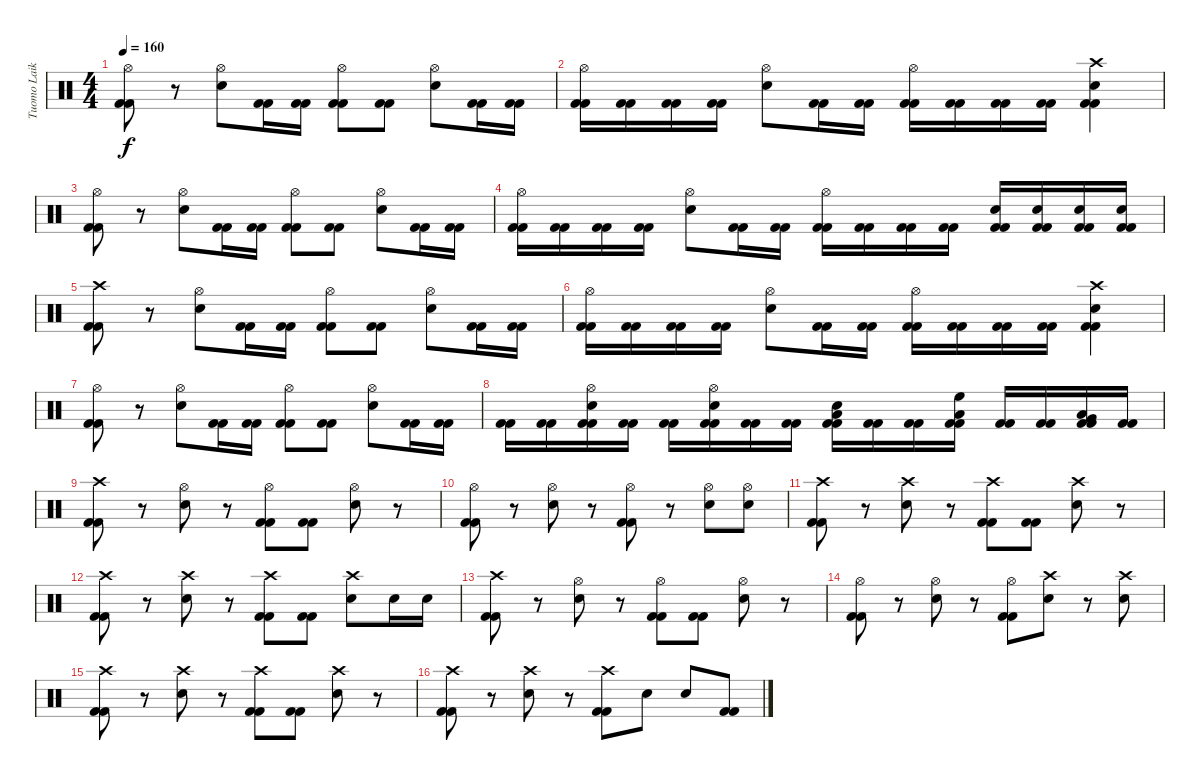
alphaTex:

\track ("Tuomo Laikari" "Tuomo Laik") {instrument percussion}
\staff {score}
\articulation defaults
\ts (4 4)
\tempo 160
\clef neutral
\ks c
("Hi-Hat (open)" "Kick (hit) 2" "Kick (hit) 2").8{dy f} r.8 ("Hi-Hat (open)" "Electric Snare (hit)").8 ("Kick (hit) 2" "Kick (hit) 2").16 ("Kick (hit) 2" "Kick (hit) 2").16 ("Hi-Hat (open)" "Kick (hit) 2" "Kick (hit) 2").8 ("Kick (hit) 2" "Kick (hit) 2").8 ("Hi-Hat (open)" "Electric Snare (hit)").8 ("Kick (hit) 2" "Kick (hit) 2").16 ("Kick (hit) 2" "Kick (hit) 2").16 |
("Hi-Hat (open)" "Kick (hit) 2" "Kick (hit) 2").16 ("Kick (hit) 2" "Kick (hit) 2").16 ("Kick (hit) 2" "Kick (hit) 2").16 ("Kick (hit) 2" "Kick (hit) 2").16 ("Hi-Hat (open)" "Electric Snare (hit)").8 ("Kick (hit) 2" "Kick (hit) 2").16 ("Kick (hit) 2" "Kick (hit) 2").16 ("Hi-Hat (open)" "Kick (hit) 2" "Kick (hit) 2").16 ("Kick (hit) 2" "Kick (hit) 2").16 ("Kick (hit) 2" "Kick (hit) 2").16 ("Kick (hit) 2" "Kick (hit) 2").16 ("Crash high (hit)" "Electric Snare (hit)" "Kick (hit) 2" "Kick (hit) 2").4 |
("Hi-Hat (open)" "Kick (hit) 2" "Kick (hit) 2").8 r.8 ("Hi-Hat (open)" "Electric Snare (hit)").8 ("Kick (hit) 2" "Kick (hit) 2").16 ("Kick (hit) 2" "Kick (hit) 2").16 ("Hi-Hat (open)" "Kick (hit) 2" "Kick (hit) 2").8 ("Kick (hit) 2" "Kick (hit) 2").8 ("Hi-Hat (open)" "Electric Snare (hit)").8 ("Kick (hit) 2" "Kick (hit) 2").16 ("Kick (hit) 2" "Kick (hit) 2").16 |
("Hi-Hat (open)" "Kick (hit) 2" "Kick (hit) 2").16 ("Kick (hit) 2" "Kick (hit) 2").16 ("Kick (hit) 2" "Kick (hit) 2").16 ("Kick (hit) 2" "Kick (hit) 2").16 ("Hi-Hat (open)" "Electric Snare (hit)").8 ("Kick (hit) 2" "Kick (hit) 2").16 ("Kick (hit) 2" "Kick (hit) 2").16 ("Hi-Hat (open)" "Kick (hit) 2" "Kick (hit) 2").16 ("Kick (hit) 2" "Kick (hit) 2").16 ("Kick (hit) 2" "Kick (hit) 2").16 ("Kick (hit) 2" "Kick (hit) 2").16 ("Electric Snare (hit)" "Kick (hit) 2" "Kick (hit) 2").16 ("Electric Snare (hit)" "Kick (hit) 2" "Kick (hit) 2").16 ("Electric Snare (hit)" "Kick (hit) 2" "Kick (hit) 2").16 ("Electric Snare (hit)" "Kick (hit) 2" "Kick (hit) 2").16 |
("Crash high (hit)" "Kick (hit) 2" "Kick (hit) 2").8 r.8 ("Hi-Hat (open)" "Electric Snare (hit)").8 ("Kick (hit) 2" "Kick (hit) 2").16 ("Kick (hit) 2" "Kick (hit) 2").16 ("Hi-Hat (open)" "Kick (hit) 2" "Kick (hit) 2").8 ("Kick (hit) 2" "Kick (hit) 2").8 ("Hi-Hat (open)" "Electric Snare (hit)").8 ("Kick (hit) 2" "Kick (hit) 2").16 ("Kick (hit) 2" "Kick (hit) 2").16 |
("Hi-Hat (open)" "Kick (hit) 2" "Kick (hit) 2").16 ("Kick (hit) 2" "Kick (hit) 2").16 ("Kick (hit) 2" "Kick (hit) 2").16 ("Kick (hit) 2" "Kick (hit) 2").16 ("Hi-Hat (open)" "Electric Snare (hit)").8 ("Kick (hit) 2" "Kick (hit) 2").16 ("Kick (hit) 2" "Kick (hit) 2").16 ("Hi-Hat (open)" "Kick (hit) 2" "Kick (hit) 2").16 ("Kick (hit) 2" "Kick (hit) 2").16 ("Kick (hit) 2" "Kick (hit) 2").16 ("Kick (hit) 2" "Kick (hit) 2").16 ("Crash high (hit)" "Electric Snare (hit)" "Kick (hit) 2" "Kick (hit) 2").4 |
("Hi-Hat (open)" "Kick (hit) 2" "Kick (hit) 2").8 r.8 ("Hi-Hat (open)" "Electric Snare (hit)").8 ("Kick (hit) 2" "Kick (hit) 2").16 ("Kick (hit) 2" "Kick (hit) 2").16 ("Hi-Hat (open)" "Kick (hit) 2" "Kick (hit) 2").8 ("Kick (hit) 2" "Kick (hit) 2").8 ("Hi-Hat (open)" "Electric Snare (hit)").8 ("Kick (hit) 2" "Kick (hit) 2").16 ("Kick (hit) 2" "Kick (hit) 2").16 |
("Kick (hit) 2" "Kick (hit) 2").16 ("Kick (hit) 2" "Kick (hit) 2").16 ("Hi-Hat (open)" "Electric Snare (hit)" "Kick (hit) 2" "Kick (hit) 2").16 ("Kick (hit) 2" "Kick (hit) 2").16 ("Kick (hit) 2" "Kick (hit) 2").16 ("Hi-Hat (open)" "Electric Snare (hit)" "Kick (hit) 2" "Kick (hit) 2").16 ("Kick (hit) 2" "Kick (hit) 2").16 ("Kick (hit) 2" "Kick (hit) 2").16 ("Low Tom (hit)" "Electric Snare (hit)" "Kick (hit) 2" "Kick (hit) 2").16 ("Kick (hit) 2" "Kick (hit) 2").16 ("Kick (hit) 2" "Kick (hit) 2").16 ("High Floor Tom (hit)" "Low Tom (hit)" "Kick (hit) 2" "Kick (hit) 2").16 ("Kick (hit) 2" "Kick (hit) 2").16 ("Kick (hit) 2" "Kick (hit) 2").16 ("Very Low Tom (hit)" "Low Floor Tom (hit)" "Kick (hit) 2" "Kick (hit) 2").16 ("Kick (hit) 2" "Kick (hit) 2").16 |
("Crash high (hit)" "Kick (hit) 2" "Kick (hit) 2").8 r.8 ("Hi-Hat (open)" "Electric Snare (hit)").8 r.8 ("Hi-Hat (open)" "Kick (hit) 2" "Kick (hit) 2").8 ("Kick (hit) 2" "Kick (hit) 2").8 ("Hi-Hat (open)" "Electric Snare (hit)").8 r.8 |
("Hi-Hat (open)" "Kick (hit) 2" "Kick (hit) 2").8 r.8 ("Hi-Hat (open)" "Electric Snare (hit)").8 r.8 ("Hi-Hat (open)" "Kick (hit) 2" "Kick (hit) 2").8 r.8 ("Hi-Hat (open)" "Electric Snare (hit)").8 ("Hi-Hat (open)" "Electric Snare (hit)").8 |
("Crash high (hit)" "Kick (hit) 2" "Kick (hit) 2").8 r.8 ("Crash high (hit)" "Electric Snare (hit)").8 r.8 ("Crash high (hit)" "Kick (hit) 2" "Kick (hit) 2").8 ("Kick (hit) 2" "Kick (hit) 2").8 ("Crash high (hit)" "Electric Snare (hit)").8 r.8 |
("Crash high (hit)" "Kick (hit) 2" "Kick (hit) 2").8 r.8 ("Crash high (hit)" "Electric Snare (hit)").8 r.8 ("Crash high (hit)" "Kick (hit) 2" "Kick (hit) 2").8 ("Kick (hit) 2" "Kick (hit) 2").8 ("Crash high (hit)" "Electric Snare (hit)").8 "Electric Snare (hit)".16 "Electric Snare (hit)".16 |
("Crash high (hit)" "Kick (hit) 2" "Kick (hit) 2").8 r.8 ("Hi-Hat (open)" "Electric Snare (hit)").8 r.8 ("Hi-Hat (open)" "Kick (hit) 2" "Kick (hit) 2").8 ("Kick (hit) 2" "Kick (hit) 2").8 ("Hi-Hat (open)" "Electric Snare (hit)").8 r.8 |
("Hi-Hat (open)" "Kick (hit) 2" "Kick (hit) 2").8 r.8 ("Hi-Hat (open)" "Electric Snare (hit)").8 r.8 ("Hi-Hat (open)" "Kick (hit) 2" "Kick (hit) 2").8 ("Crash high (hit)" "Electric Snare (hit)").8 r.8 ("Crash high (hit)" "Electric Snare (hit)").8 |
("Crash high (hit)" "Kick (hit) 2" "Kick (hit) 2").8 r.8 ("Crash high (hit)" "Electric Snare (hit)").8 r.8 ("Crash high (hit)" "Kick (hit) 2" "Kick (hit) 2").8 ("Kick (hit) 2" "Kick (hit) 2").8 ("Crash high (hit)" "Electric Snare (hit)").8 r.8 |
("Crash high (hit)" "Kick (hit) 2" "Kick (hit) 2").8 r.8 ("Crash high (hit)" "Electric Snare (hit)").8 r.8 ("Crash high (hit)" "Kick (hit) 2" "Kick (hit) 2").8 "Electric Snare (hit)".8 "Electric Snare (hit)".8 ("Kick (hit) 2" "Kick (hit) 2").8
